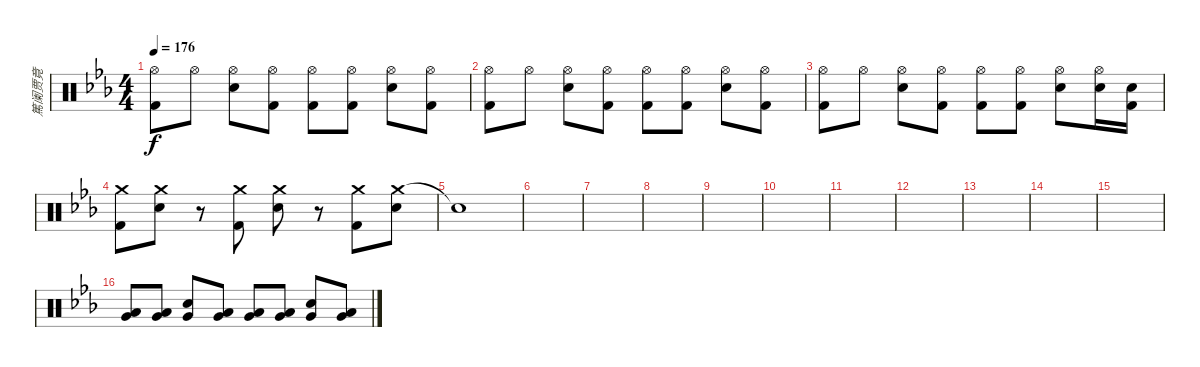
\track ("篤阑贾竟" "篤阑贾竟") {instrument percussion}
\staff {score}
\articulation defaults
\ts (4 4)
\tempo 176
\clef neutral
\ks eb
("Hi-Hat (open)" "Kick (hit) 2").8{dy f} "Hi-Hat (open)".8 ("Hi-Hat (open)" "Snare (hit) 2").8 ("Hi-Hat (open)" "Kick (hit) 2").8 ("Hi-Hat (open)" "Kick (hit) 2").8 ("Hi-Hat (open)" "Kick (hit) 2").8 ("Hi-Hat (open)" "Snare (hit) 2").8 ("Hi-Hat (open)" "Kick (hit) 2").8 |
("Hi-Hat (open)" "Kick (hit) 2").8 "Hi-Hat (open)".8 ("Hi-Hat (open)" "Snare (hit) 2").8 ("Hi-Hat (open)" "Kick (hit) 2").8 ("Hi-Hat (open)" "Kick (hit) 2").8 ("Hi-Hat (open)" "Kick (hit) 2").8 ("Hi-Hat (open)" "Snare (hit) 2").8 ("Hi-Hat (open)" "Kick (hit) 2").8 |
("Hi-Hat (open)" "Kick (hit) 2").8 "Hi-Hat (open)".8 ("Hi-Hat (open)" "Snare (hit) 2").8 ("Hi-Hat (open)" "Kick (hit) 2").8 ("Hi-Hat (open)" "Kick (hit) 2").8 ("Hi-Hat (open)" "Kick (hit) 2").8 ("Hi-Hat (open)" "Snare (hit) 2").8 ("Hi-Hat (open)" "Snare (hit) 2").16 ("Snare (hit) 2" "Kick (hit) 2").16 |
("Crash medium (hit)" "Kick (hit) 2").8 ("Crash medium (hit)" "Snare (hit) 2").8 r.8 ("Crash medium (hit)" "Kick (hit) 2").8 ("Crash medium (hit)" "Snare (hit) 2").8 r.8 ("Crash medium (hit)" "Kick (hit) 2").8 ("Crash medium (hit)" "Snare (hit) 2").8 |
"Snare (hit)"{t}.1 |
|
|
|
|
|
|
|
|
|
|
("Very Low Tom (hit)" "Low Floor Tom (hit)").8{volume 7} ("Very Low Tom (hit)" "Low Floor Tom (hit)").8 ("Very Low Tom (hit)" "Snare (hit) 2").8 ("Very Low Tom (hit)" "Low Floor Tom (hit)").8 ("Very Low Tom (hit)" "Low Floor Tom (hit)").8{volume 9} ("Very Low Tom (hit)" "Low Floor Tom (hit)").8 ("Very Low Tom (hit)" "Snare (hit) 2").8 ("Very Low Tom (hit)" "Low Floor Tom (hit)").8
